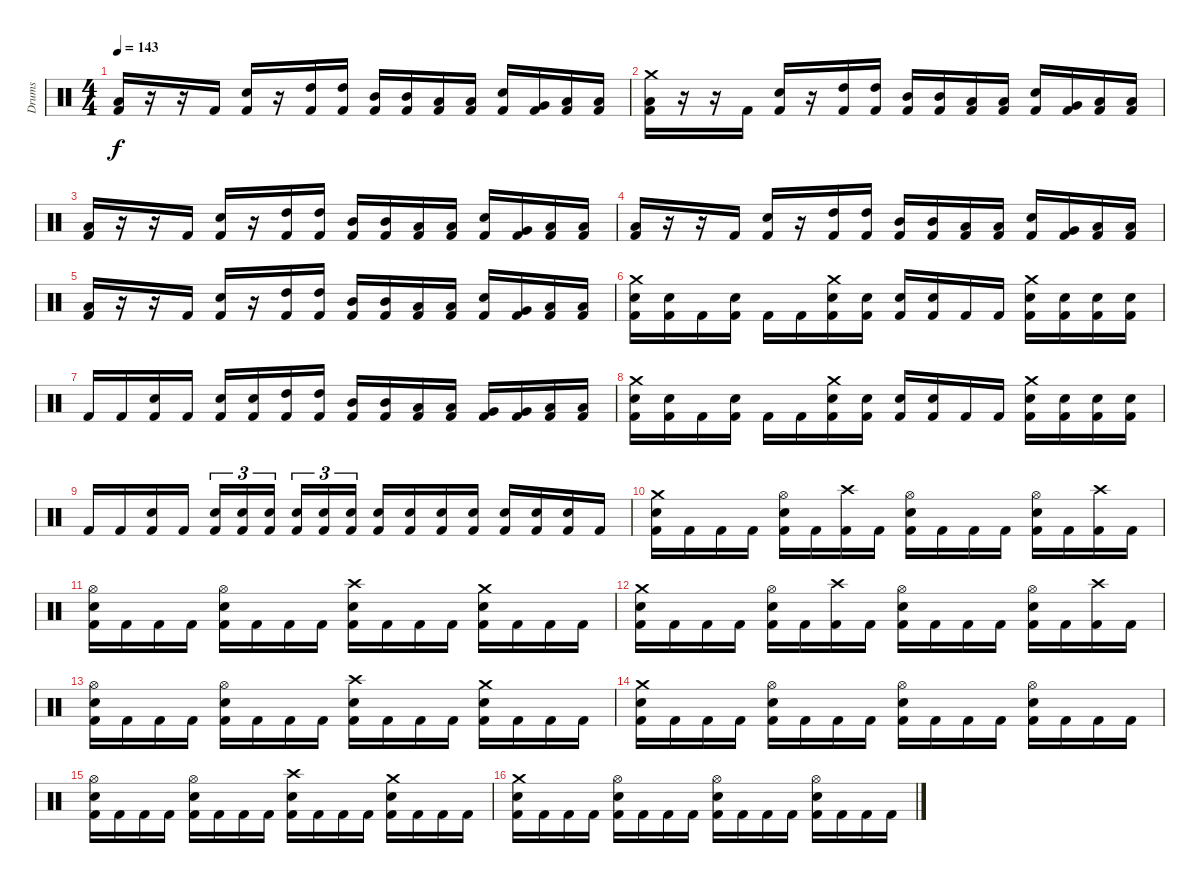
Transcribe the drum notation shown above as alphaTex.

\track ("Drums" "Drums") {instrument percussion}
\staff {score}
\articulation defaults
\ts (4 4)
\tempo 143
\clef neutral
\ks c
("Low Floor Tom (hit)" "Kick (hit) 2").16{dy f} r.16 r.16 "Kick (hit) 2".16 ("Electric Snare (hit)" "Kick (hit) 2").16 r.16 ("High Tom (hit)" "Kick (hit) 2").16 ("High Tom (hit)" "Kick (hit) 2").16 ("Mid Tom (hit)" "Kick (hit) 2").16 ("Mid Tom (hit)" "Kick (hit) 2").16 ("Low Tom (hit)" "Kick (hit) 2").16 ("Low Tom (hit)" "Kick (hit) 2").16 ("Electric Snare (hit)" "Kick (hit) 2").16 ("Very Low Tom (hit)" "Kick (hit) 2").16 ("Low Floor Tom (hit)" "Kick (hit) 2").16 ("Low Floor Tom (hit)" "Kick (hit) 2").16 |
("Crash medium (hit)" "Low Floor Tom (hit)" "Kick (hit) 2").16 r.16 r.16 "Kick (hit) 2".16 ("Electric Snare (hit)" "Kick (hit) 2").16 r.16 ("High Tom (hit)" "Kick (hit) 2").16 ("High Tom (hit)" "Kick (hit) 2").16 ("Mid Tom (hit)" "Kick (hit) 2").16 ("Mid Tom (hit)" "Kick (hit) 2").16 ("Low Tom (hit)" "Kick (hit) 2").16 ("Low Tom (hit)" "Kick (hit) 2").16 ("Electric Snare (hit)" "Kick (hit) 2").16 ("Very Low Tom (hit)" "Kick (hit) 2").16 ("Low Floor Tom (hit)" "Kick (hit) 2").16 ("Low Floor Tom (hit)" "Kick (hit) 2").16 |
("Low Floor Tom (hit)" "Kick (hit) 2").16 r.16 r.16 "Kick (hit) 2".16 ("Electric Snare (hit)" "Kick (hit) 2").16 r.16 ("High Tom (hit)" "Kick (hit) 2").16 ("High Tom (hit)" "Kick (hit) 2").16 ("Mid Tom (hit)" "Kick (hit) 2").16 ("Mid Tom (hit)" "Kick (hit) 2").16 ("Low Tom (hit)" "Kick (hit) 2").16 ("Low Tom (hit)" "Kick (hit) 2").16 ("Electric Snare (hit)" "Kick (hit) 2").16 ("Very Low Tom (hit)" "Kick (hit) 2").16 ("Low Floor Tom (hit)" "Kick (hit) 2").16 ("Low Floor Tom (hit)" "Kick (hit) 2").16 |
("Low Floor Tom (hit)" "Kick (hit) 2").16 r.16 r.16 "Kick (hit) 2".16 ("Electric Snare (hit)" "Kick (hit) 2").16 r.16 ("High Tom (hit)" "Kick (hit) 2").16 ("High Tom (hit)" "Kick (hit) 2").16 ("Mid Tom (hit)" "Kick (hit) 2").16 ("Mid Tom (hit)" "Kick (hit) 2").16 ("Low Tom (hit)" "Kick (hit) 2").16 ("Low Tom (hit)" "Kick (hit) 2").16 ("Electric Snare (hit)" "Kick (hit) 2").16 ("Very Low Tom (hit)" "Kick (hit) 2").16 ("Low Floor Tom (hit)" "Kick (hit) 2").16 ("Low Floor Tom (hit)" "Kick (hit) 2").16 |
("Low Floor Tom (hit)" "Kick (hit) 2").16 r.16 r.16 "Kick (hit) 2".16 ("Electric Snare (hit)" "Kick (hit) 2").16 r.16 ("High Tom (hit)" "Kick (hit) 2").16 ("High Tom (hit)" "Kick (hit) 2").16 ("Mid Tom (hit)" "Kick (hit) 2").16 ("Mid Tom (hit)" "Kick (hit) 2").16 ("Low Tom (hit)" "Kick (hit) 2").16 ("Low Tom (hit)" "Kick (hit) 2").16 ("Electric Snare (hit)" "Kick (hit) 2").16 ("Very Low Tom (hit)" "Kick (hit) 2").16 ("Low Floor Tom (hit)" "Kick (hit) 2").16 ("Low Floor Tom (hit)" "Kick (hit) 2").16 |
\section ("" "")
("Crash medium (hit)" "Electric Snare (hit)" "Kick (hit) 2").16 ("Electric Snare (hit)" "Kick (hit) 2").16 "Kick (hit) 2".16 ("Electric Snare (hit)" "Kick (hit) 2").16 "Kick (hit) 2".16 "Kick (hit) 2".16 ("Crash medium (hit)" "Electric Snare (hit)" "Kick (hit) 2").16 ("Electric Snare (hit)" "Kick (hit) 2").16 ("Electric Snare (hit)" "Kick (hit) 2").16 ("Electric Snare (hit)" "Kick (hit) 2").16 "Kick (hit) 2".16 "Kick (hit) 2".16 ("Crash medium (hit)" "Electric Snare (hit)" "Kick (hit) 2").16 ("Electric Snare (hit)" "Kick (hit) 2").16 ("Electric Snare (hit)" "Kick (hit) 2").16 ("Electric Snare (hit)" "Kick (hit) 2").16 |
"Kick (hit) 2".16 "Kick (hit) 2".16 ("Electric Snare (hit)" "Kick (hit) 2").16 "Kick (hit) 2".16 ("Electric Snare (hit)" "Kick (hit) 2").16 ("Electric Snare (hit)" "Kick (hit) 2").16 ("High Tom (hit)" "Kick (hit) 2").16 ("High Tom (hit)" "Kick (hit) 2").16 ("Mid Tom (hit)" "Kick (hit) 2").16 ("Mid Tom (hit)" "Kick (hit) 2").16 ("Low Tom (hit)" "Kick (hit) 2").16 ("Low Tom (hit)" "Kick (hit) 2").16 ("Very Low Tom (hit)" "Kick (hit) 2").16 ("Very Low Tom (hit)" "Kick (hit) 2").16 ("Low Floor Tom (hit)" "Kick (hit) 2").16 ("Low Floor Tom (hit)" "Kick (hit) 2").16 |
("Crash medium (hit)" "Electric Snare (hit)" "Kick (hit) 2").16 ("Electric Snare (hit)" "Kick (hit) 2").16 "Kick (hit) 2".16 ("Electric Snare (hit)" "Kick (hit) 2").16 "Kick (hit) 2".16 "Kick (hit) 2".16 ("Crash medium (hit)" "Electric Snare (hit)" "Kick (hit) 2").16 ("Electric Snare (hit)" "Kick (hit) 2").16 ("Electric Snare (hit)" "Kick (hit) 2").16 ("Electric Snare (hit)" "Kick (hit) 2").16 "Kick (hit) 2".16 "Kick (hit) 2".16 ("Crash medium (hit)" "Electric Snare (hit)" "Kick (hit) 2").16 ("Electric Snare (hit)" "Kick (hit) 2").16 ("Electric Snare (hit)" "Kick (hit) 2").16 ("Electric Snare (hit)" "Kick (hit) 2").16 |
"Kick (hit) 2".16 "Kick (hit) 2".16 ("Electric Snare (hit)" "Kick (hit) 2").16 "Kick (hit) 2".16 ("Electric Snare (hit)" "Kick (hit) 2").16{tu (3 2)} ("Electric Snare (hit)" "Kick (hit) 2").16{tu (3 2)} ("Electric Snare (hit)" "Kick (hit) 2").16{tu (3 2)} ("Electric Snare (hit)" "Kick (hit) 2").16{tu (3 2)} ("Electric Snare (hit)" "Kick (hit) 2").16{tu (3 2)} ("Electric Snare (hit)" "Kick (hit) 2").16{tu (3 2)} ("Electric Snare (hit)" "Kick (hit) 2").16 ("Electric Snare (hit)" "Kick (hit) 2").16 ("Electric Snare (hit)" "Kick (hit) 2").16 ("Electric Snare (hit)" "Kick (hit) 2").16 ("Electric Snare (hit)" "Kick (hit) 2").16 ("Electric Snare (hit)" "Kick (hit) 2").16 ("Electric Snare (hit)" "Kick (hit) 2").16 "Kick (hit) 2".16 |
("Crash medium (hit)" "Electric Snare (hit)" "Kick (hit) 2").16 "Kick (hit) 2".16 "Kick (hit) 2".16 "Kick (hit) 2".16 ("Hi-Hat (open)" "Electric Snare (hit)" "Kick (hit) 2").16 "Kick (hit) 2".16 ("Crash high (hit)" "Kick (hit) 2").16 "Kick (hit) 2".16 ("Hi-Hat (open)" "Electric Snare (hit)" "Kick (hit) 2").16 "Kick (hit) 2".16 "Kick (hit) 2".16 "Kick (hit) 2".16 ("Hi-Hat (open)" "Electric Snare (hit)" "Kick (hit) 2").16 "Kick (hit) 2".16 ("Crash high (hit)" "Kick (hit) 2").16 "Kick (hit) 2".16 |
("Hi-Hat (open)" "Electric Snare (hit)" "Kick (hit) 2").16 "Kick (hit) 2".16 "Kick (hit) 2".16 "Kick (hit) 2".16 ("Hi-Hat (open)" "Electric Snare (hit)" "Kick (hit) 2").16 "Kick (hit) 2".16 "Kick (hit) 2".16 "Kick (hit) 2".16 ("Crash high (hit)" "Electric Snare (hit)" "Kick (hit) 2").16 "Kick (hit) 2".16 "Kick (hit) 2".16 "Kick (hit) 2".16 ("Crash medium (hit)" "Electric Snare (hit)" "Kick (hit) 2").16 "Kick (hit) 2".16 "Kick (hit) 2".16 "Kick (hit) 2".16 |
("Crash medium (hit)" "Electric Snare (hit)" "Kick (hit) 2").16 "Kick (hit) 2".16 "Kick (hit) 2".16 "Kick (hit) 2".16 ("Hi-Hat (open)" "Electric Snare (hit)" "Kick (hit) 2").16 "Kick (hit) 2".16 ("Crash high (hit)" "Kick (hit) 2").16 "Kick (hit) 2".16 ("Hi-Hat (open)" "Electric Snare (hit)" "Kick (hit) 2").16 "Kick (hit) 2".16 "Kick (hit) 2".16 "Kick (hit) 2".16 ("Hi-Hat (open)" "Electric Snare (hit)" "Kick (hit) 2").16 "Kick (hit) 2".16 ("Crash high (hit)" "Kick (hit) 2").16 "Kick (hit) 2".16 |
("Hi-Hat (open)" "Electric Snare (hit)" "Kick (hit) 2").16 "Kick (hit) 2".16 "Kick (hit) 2".16 "Kick (hit) 2".16 ("Hi-Hat (open)" "Electric Snare (hit)" "Kick (hit) 2").16 "Kick (hit) 2".16 "Kick (hit) 2".16 "Kick (hit) 2".16 ("Crash high (hit)" "Electric Snare (hit)" "Kick (hit) 2").16 "Kick (hit) 2".16 "Kick (hit) 2".16 "Kick (hit) 2".16 ("Crash medium (hit)" "Electric Snare (hit)" "Kick (hit) 2").16 "Kick (hit) 2".16 "Kick (hit) 2".16 "Kick (hit) 2".16 |
\section ("" "")
("Crash medium (hit)" "Electric Snare (hit)" "Kick (hit) 2").16 "Kick (hit) 2".16 "Kick (hit) 2".16 "Kick (hit) 2".16 ("Hi-Hat (open)" "Electric Snare (hit)" "Kick (hit) 2").16 "Kick (hit) 2".16 "Kick (hit) 2".16 "Kick (hit) 2".16 ("Hi-Hat (open)" "Electric Snare (hit)" "Kick (hit) 2").16 "Kick (hit) 2".16 "Kick (hit) 2".16 "Kick (hit) 2".16 ("Hi-Hat (open)" "Electric Snare (hit)" "Kick (hit) 2").16 "Kick (hit) 2".16 "Kick (hit) 2".16 "Kick (hit) 2".16 |
("Hi-Hat (open)" "Electric Snare (hit)" "Kick (hit) 2").16 "Kick (hit) 2".16 "Kick (hit) 2".16 "Kick (hit) 2".16 ("Hi-Hat (open)" "Electric Snare (hit)" "Kick (hit) 2").16 "Kick (hit) 2".16 "Kick (hit) 2".16 "Kick (hit) 2".16 ("Crash high (hit)" "Electric Snare (hit)" "Kick (hit) 2").16 "Kick (hit) 2".16 "Kick (hit) 2".16 "Kick (hit) 2".16 ("Crash medium (hit)" "Electric Snare (hit)" "Kick (hit) 2").16 "Kick (hit) 2".16 "Kick (hit) 2".16 "Kick (hit) 2".16 |
("Crash medium (hit)" "Electric Snare (hit)" "Kick (hit) 2").16 "Kick (hit) 2".16 "Kick (hit) 2".16 "Kick (hit) 2".16 ("Hi-Hat (open)" "Electric Snare (hit)" "Kick (hit) 2").16 "Kick (hit) 2".16 "Kick (hit) 2".16 "Kick (hit) 2".16 ("Hi-Hat (open)" "Electric Snare (hit)" "Kick (hit) 2").16 "Kick (hit) 2".16 "Kick (hit) 2".16 "Kick (hit) 2".16 ("Hi-Hat (open)" "Electric Snare (hit)" "Kick (hit) 2").16 "Kick (hit) 2".16 "Kick (hit) 2".16 "Kick (hit) 2".16
